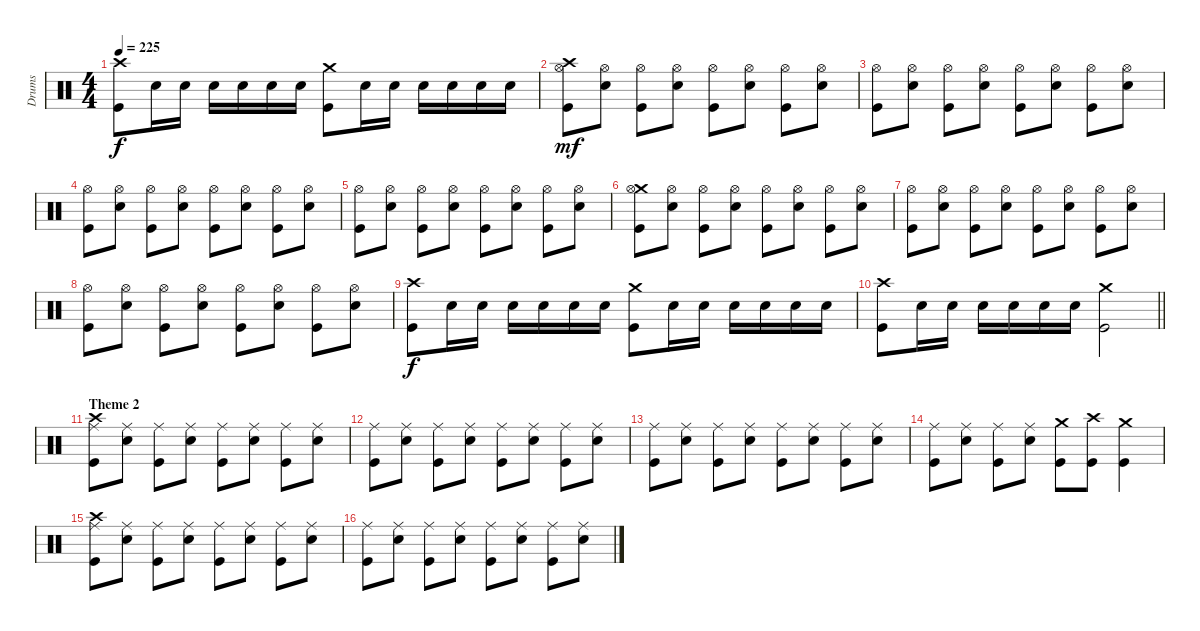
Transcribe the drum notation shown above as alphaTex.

\track ("Drums" "Drums") {instrument percussion}
\staff {score}
\articulation defaults
\ts (4 4)
\tempo 225
\clef neutral
\ks c
("Crash high (hit)" "Kick (hit)").8{dy f} "Electric Snare (hit)".16 "Electric Snare (hit)".16 "Electric Snare (hit)".16 "Electric Snare (hit)".16 "Electric Snare (hit)".16 "Electric Snare (hit)".16 ("Crash medium (hit)" "Kick (hit)").8 "Electric Snare (hit)".16 "Electric Snare (hit)".16 "Electric Snare (hit)".16 "Electric Snare (hit)".16 "Electric Snare (hit)".16 "Electric Snare (hit)".16 |
("Crash high (hit)" "Hi-Hat (open)" "Kick (hit)").8{dy mf} ("Hi-Hat (open)" "Electric Snare (hit)").8 ("Hi-Hat (open)" "Kick (hit)").8 ("Hi-Hat (open)" "Electric Snare (hit)").8 ("Hi-Hat (open)" "Kick (hit)").8 ("Hi-Hat (open)" "Electric Snare (hit)").8 ("Hi-Hat (open)" "Kick (hit)").8 ("Hi-Hat (open)" "Electric Snare (hit)").8 |
("Hi-Hat (open)" "Kick (hit)").8 ("Hi-Hat (open)" "Electric Snare (hit)").8 ("Hi-Hat (open)" "Kick (hit)").8 ("Hi-Hat (open)" "Electric Snare (hit)").8 ("Hi-Hat (open)" "Kick (hit)").8 ("Hi-Hat (open)" "Electric Snare (hit)").8 ("Hi-Hat (open)" "Kick (hit)").8 ("Hi-Hat (open)" "Electric Snare (hit)").8 |
("Hi-Hat (open)" "Kick (hit)").8 ("Hi-Hat (open)" "Electric Snare (hit)").8 ("Hi-Hat (open)" "Kick (hit)").8 ("Hi-Hat (open)" "Electric Snare (hit)").8 ("Hi-Hat (open)" "Kick (hit)").8 ("Hi-Hat (open)" "Electric Snare (hit)").8 ("Hi-Hat (open)" "Kick (hit)").8 ("Hi-Hat (open)" "Electric Snare (hit)").8 |
("Hi-Hat (open)" "Kick (hit)").8 ("Hi-Hat (open)" "Electric Snare (hit)").8 ("Hi-Hat (open)" "Kick (hit)").8 ("Hi-Hat (open)" "Electric Snare (hit)").8 ("Hi-Hat (open)" "Kick (hit)").8 ("Hi-Hat (open)" "Electric Snare (hit)").8 ("Hi-Hat (open)" "Kick (hit)").8 ("Hi-Hat (open)" "Electric Snare (hit)").8 |
("Crash medium (hit)" "Hi-Hat (open)" "Kick (hit)").8 ("Hi-Hat (open)" "Electric Snare (hit)").8 ("Hi-Hat (open)" "Kick (hit)").8 ("Hi-Hat (open)" "Electric Snare (hit)").8 ("Hi-Hat (open)" "Kick (hit)").8 ("Hi-Hat (open)" "Electric Snare (hit)").8 ("Hi-Hat (open)" "Kick (hit)").8 ("Hi-Hat (open)" "Electric Snare (hit)").8 |
("Hi-Hat (open)" "Kick (hit)").8 ("Hi-Hat (open)" "Electric Snare (hit)").8 ("Hi-Hat (open)" "Kick (hit)").8 ("Hi-Hat (open)" "Electric Snare (hit)").8 ("Hi-Hat (open)" "Kick (hit)").8 ("Hi-Hat (open)" "Electric Snare (hit)").8 ("Hi-Hat (open)" "Kick (hit)").8 ("Hi-Hat (open)" "Electric Snare (hit)").8 |
("Hi-Hat (open)" "Kick (hit)").8 ("Hi-Hat (open)" "Electric Snare (hit)").8 ("Hi-Hat (open)" "Kick (hit)").8 ("Hi-Hat (open)" "Electric Snare (hit)").8 ("Hi-Hat (open)" "Kick (hit)").8 ("Hi-Hat (open)" "Electric Snare (hit)").8 ("Hi-Hat (open)" "Kick (hit)").8 ("Hi-Hat (open)" "Electric Snare (hit)").8 |
("Crash high (hit)" "Kick (hit)").8{dy f} "Electric Snare (hit)".16 "Electric Snare (hit)".16 "Electric Snare (hit)".16 "Electric Snare (hit)".16 "Electric Snare (hit)".16 "Electric Snare (hit)".16 ("Crash medium (hit)" "Kick (hit)").8 "Electric Snare (hit)".16 "Electric Snare (hit)".16 "Electric Snare (hit)".16 "Electric Snare (hit)".16 "Electric Snare (hit)".16 "Electric Snare (hit)".16 |
\barLineRight lightlight
("Crash high (hit)" "Kick (hit)").8 "Electric Snare (hit)".16 "Electric Snare (hit)".16 "Electric Snare (hit)".16 "Electric Snare (hit)".16 "Electric Snare (hit)".16 "Electric Snare (hit)".16 ("Crash medium (hit)" "Kick (hit)").2 |
\section ("" "Theme 2")
("Crash high (hit)" "Ride (middle)" "Kick (hit)").8 ("Ride (middle)" "Electric Snare (hit)").8 ("Ride (middle)" "Kick (hit)").8 ("Ride (middle)" "Electric Snare (hit)").8 ("Ride (middle)" "Kick (hit)").8 ("Ride (middle)" "Electric Snare (hit)").8 ("Ride (middle)" "Kick (hit)").8 ("Ride (middle)" "Electric Snare (hit)").8 |
("Ride (middle)" "Kick (hit)").8 ("Ride (middle)" "Electric Snare (hit)").8 ("Ride (middle)" "Kick (hit)").8 ("Ride (middle)" "Electric Snare (hit)").8 ("Ride (middle)" "Kick (hit)").8 ("Ride (middle)" "Electric Snare (hit)").8 ("Ride (middle)" "Kick (hit)").8 ("Ride (middle)" "Electric Snare (hit)").8 |
("Ride (middle)" "Kick (hit)").8 ("Ride (middle)" "Electric Snare (hit)").8 ("Ride (middle)" "Kick (hit)").8 ("Ride (middle)" "Electric Snare (hit)").8 ("Ride (middle)" "Kick (hit)").8 ("Ride (middle)" "Electric Snare (hit)").8 ("Ride (middle)" "Kick (hit)").8 ("Ride (middle)" "Electric Snare (hit)").8 |
("Ride (middle)" "Kick (hit)").8 ("Ride (middle)" "Electric Snare (hit)").8 ("Ride (middle)" "Kick (hit)").8 ("Ride (middle)" "Electric Snare (hit)").8 ("Crash medium (hit)" "Kick (hit)").8 ("Crash high (hit)" "Kick (hit)").8 ("Crash medium (hit)" "Kick (hit)").4 |
("Crash high (hit)" "Ride (middle)" "Kick (hit)").8 ("Ride (middle)" "Electric Snare (hit)").8 ("Ride (middle)" "Kick (hit)").8 ("Ride (middle)" "Electric Snare (hit)").8 ("Ride (middle)" "Kick (hit)").8 ("Ride (middle)" "Electric Snare (hit)").8 ("Ride (middle)" "Kick (hit)").8 ("Ride (middle)" "Electric Snare (hit)").8 |
("Ride (middle)" "Kick (hit)").8 ("Ride (middle)" "Electric Snare (hit)").8 ("Ride (middle)" "Kick (hit)").8 ("Ride (middle)" "Electric Snare (hit)").8 ("Ride (middle)" "Kick (hit)").8 ("Ride (middle)" "Electric Snare (hit)").8 ("Ride (middle)" "Kick (hit)").8 ("Ride (middle)" "Electric Snare (hit)").8
